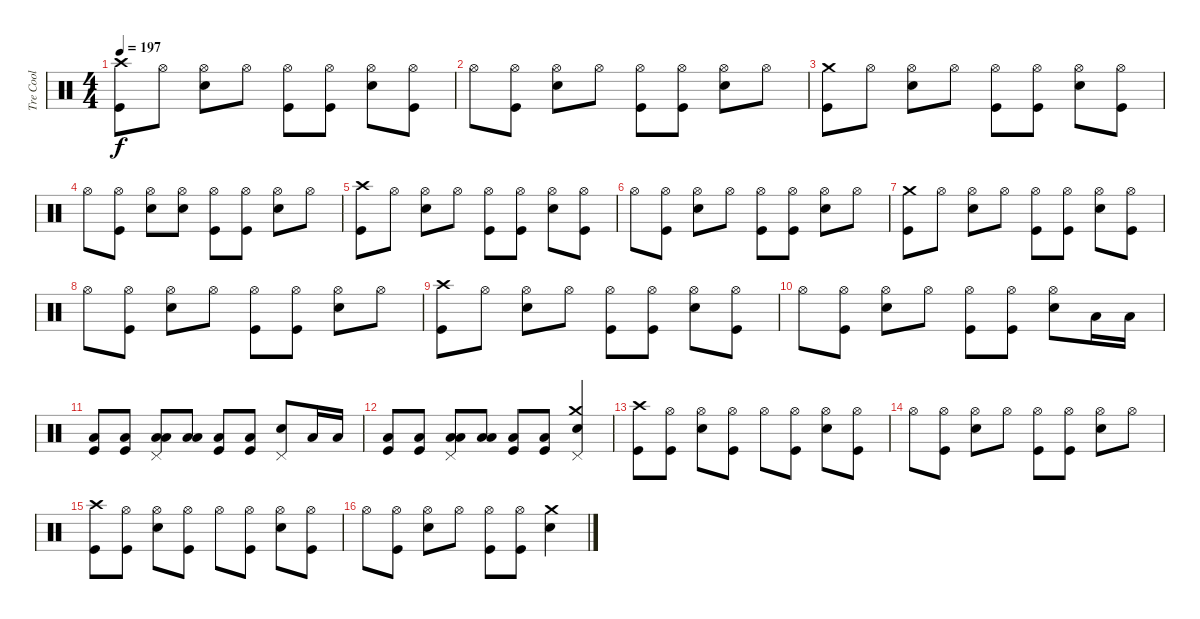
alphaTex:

\track ("Tre Cool" "Tre Cool") {instrument percussion}
\staff {score}
\articulation defaults
\ts (4 4)
\tempo 197
\clef neutral
\ks c
("Crash high (hit)" "Kick (hit)").8{dy f} "Hi-Hat (open)".8 ("Hi-Hat (open)" "Electric Snare (hit)").8 "Hi-Hat (open)".8 ("Hi-Hat (open)" "Kick (hit)").8 ("Hi-Hat (open)" "Kick (hit)").8 ("Hi-Hat (open)" "Electric Snare (hit)").8 ("Hi-Hat (open)" "Kick (hit)").8 |
"Hi-Hat (open)".8 ("Hi-Hat (open)" "Kick (hit)").8 ("Hi-Hat (open)" "Electric Snare (hit)").8 "Hi-Hat (open)".8 ("Hi-Hat (open)" "Kick (hit)").8 ("Hi-Hat (open)" "Kick (hit)").8 ("Hi-Hat (open)" "Electric Snare (hit)").8 "Hi-Hat (open)".8 |
("Crash medium (hit)" "Kick (hit)").8 "Hi-Hat (open)".8 ("Hi-Hat (open)" "Electric Snare (hit)").8 "Hi-Hat (open)".8 ("Hi-Hat (open)" "Kick (hit)").8 ("Hi-Hat (open)" "Kick (hit)").8 ("Hi-Hat (open)" "Electric Snare (hit)").8 ("Hi-Hat (open)" "Kick (hit)").8 |
"Hi-Hat (open)".8 ("Hi-Hat (open)" "Kick (hit)").8 ("Hi-Hat (open)" "Electric Snare (hit)").8 ("Hi-Hat (open)" "Electric Snare (hit)").8 ("Hi-Hat (open)" "Kick (hit)").8 ("Hi-Hat (open)" "Kick (hit)").8 ("Hi-Hat (open)" "Electric Snare (hit)").8 "Hi-Hat (open)".8 |
("Crash high (hit)" "Kick (hit)").8 "Hi-Hat (open)".8 ("Hi-Hat (open)" "Electric Snare (hit)").8 "Hi-Hat (open)".8 ("Hi-Hat (open)" "Kick (hit)").8 ("Hi-Hat (open)" "Kick (hit)").8 ("Hi-Hat (open)" "Electric Snare (hit)").8 ("Hi-Hat (open)" "Kick (hit)").8 |
"Hi-Hat (open)".8 ("Hi-Hat (open)" "Kick (hit)").8 ("Hi-Hat (open)" "Electric Snare (hit)").8 "Hi-Hat (open)".8 ("Hi-Hat (open)" "Kick (hit)").8 ("Hi-Hat (open)" "Kick (hit)").8 ("Hi-Hat (open)" "Electric Snare (hit)").8 "Hi-Hat (open)".8 |
("Crash medium (hit)" "Kick (hit)").8 "Hi-Hat (open)".8 ("Hi-Hat (open)" "Electric Snare (hit)").8 "Hi-Hat (open)".8 ("Hi-Hat (open)" "Kick (hit)").8 ("Hi-Hat (open)" "Kick (hit)").8 ("Hi-Hat (open)" "Electric Snare (hit)").8 ("Hi-Hat (open)" "Kick (hit)").8 |
"Hi-Hat (open)".8 ("Hi-Hat (open)" "Kick (hit)").8 ("Hi-Hat (open)" "Electric Snare (hit)").8 "Hi-Hat (open)".8 ("Hi-Hat (open)" "Kick (hit)").8 ("Hi-Hat (open)" "Kick (hit)").8 ("Hi-Hat (open)" "Electric Snare (hit)").8 "Hi-Hat (open)".8 |
("Crash high (hit)" "Kick (hit)").8 "Hi-Hat (open)".8 ("Hi-Hat (open)" "Electric Snare (hit)").8 "Hi-Hat (open)".8 ("Hi-Hat (open)" "Kick (hit)").8 ("Hi-Hat (open)" "Kick (hit)").8 ("Hi-Hat (open)" "Electric Snare (hit)").8 ("Hi-Hat (open)" "Kick (hit)").8 |
"Hi-Hat (open)".8 ("Hi-Hat (open)" "Kick (hit)").8 ("Hi-Hat (open)" "Electric Snare (hit)").8 "Hi-Hat (open)".8 ("Hi-Hat (open)" "Kick (hit)").8 ("Hi-Hat (open)" "Kick (hit)").8 ("Hi-Hat (open)" "Electric Snare (hit)").8 "Low Floor Tom (hit)".16 "Low Floor Tom (hit)".16 |
("Low Floor Tom (hit)" "Kick (hit)").8 ("Low Floor Tom (hit)" "Kick (hit)").8 ("Low Tom (hit)" "Low Floor Tom (hit)" "Pedal Hi-Hat (hit)").8 ("Low Tom (hit)" "Low Floor Tom (hit)").8 ("Low Floor Tom (hit)" "Kick (hit)").8 ("Low Floor Tom (hit)" "Kick (hit)").8 ("Electric Snare (hit)" "Pedal Hi-Hat (hit)").8 "Low Floor Tom (hit)".16 "Low Floor Tom (hit)".16 |
("Low Floor Tom (hit)" "Kick (hit)").8 ("Low Floor Tom (hit)" "Kick (hit)").8 ("Low Tom (hit)" "Low Floor Tom (hit)" "Pedal Hi-Hat (hit)").8 ("Low Tom (hit)" "Low Floor Tom (hit)").8 ("Low Floor Tom (hit)" "Kick (hit)").8 ("Low Floor Tom (hit)" "Kick (hit)").8 ("Crash medium (hit)" "Electric Snare (hit)" "Pedal Hi-Hat (hit)").4 |
("Crash high (hit)" "Kick (hit)").8 ("Hi-Hat (open)" "Kick (hit)").8 ("Hi-Hat (open)" "Electric Snare (hit)").8 ("Hi-Hat (open)" "Kick (hit)").8 "Hi-Hat (open)".8 ("Hi-Hat (open)" "Kick (hit)").8 ("Hi-Hat (open)" "Electric Snare (hit)").8 ("Hi-Hat (open)" "Kick (hit)").8 |
"Hi-Hat (open)".8 ("Hi-Hat (open)" "Kick (hit)").8 ("Hi-Hat (open)" "Electric Snare (hit)").8 "Hi-Hat (open)".8 ("Hi-Hat (open)" "Kick (hit)").8 ("Hi-Hat (open)" "Kick (hit)").8 ("Hi-Hat (open)" "Electric Snare (hit)").8 "Hi-Hat (open)".8 |
("Crash high (hit)" "Kick (hit)").8 ("Hi-Hat (open)" "Kick (hit)").8 ("Hi-Hat (open)" "Electric Snare (hit)").8 ("Hi-Hat (open)" "Kick (hit)").8 "Hi-Hat (open)".8 ("Hi-Hat (open)" "Kick (hit)").8 ("Hi-Hat (open)" "Electric Snare (hit)").8 ("Hi-Hat (open)" "Kick (hit)").8 |
"Hi-Hat (open)".8 ("Hi-Hat (open)" "Kick (hit)").8 ("Hi-Hat (open)" "Electric Snare (hit)").8 "Hi-Hat (open)".8 ("Hi-Hat (open)" "Kick (hit)").8 ("Hi-Hat (open)" "Kick (hit)").8 ("Crash medium (hit)" "Electric Snare (hit)").4
